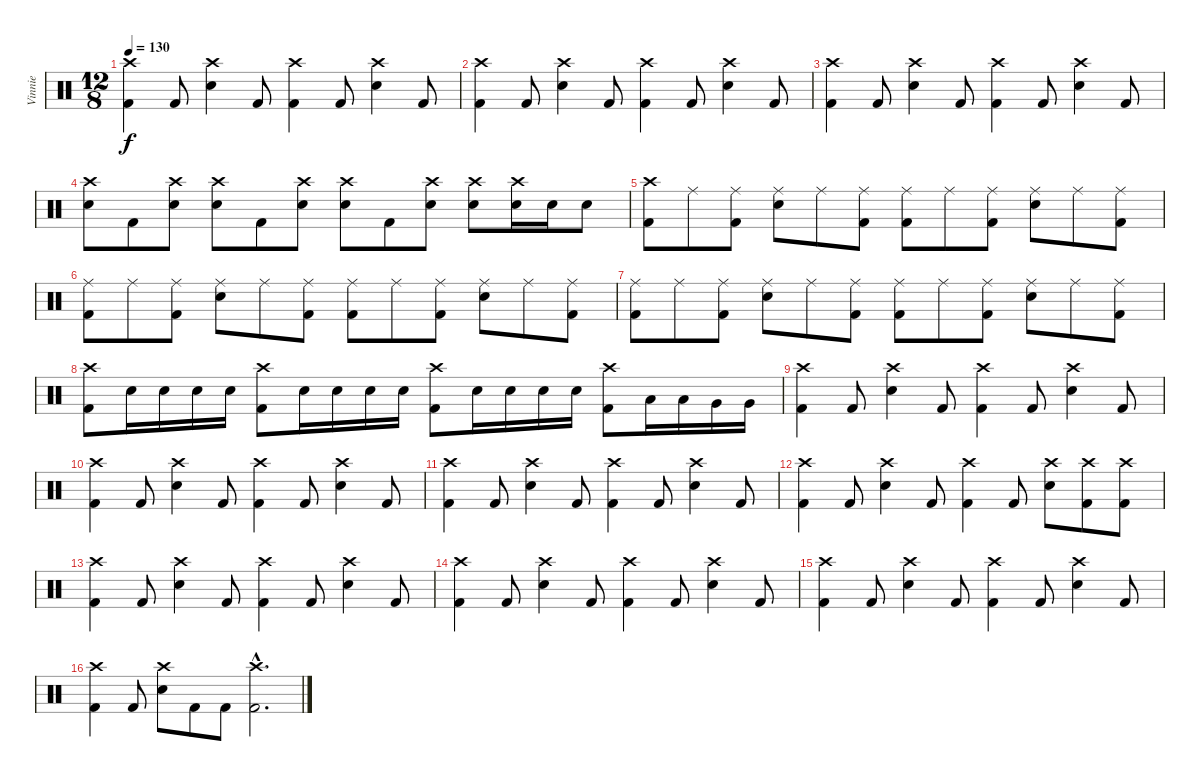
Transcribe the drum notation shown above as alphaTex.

\track ("Vinnie" "Vinnie") {instrument percussion}
\staff {score}
\articulation defaults
\ts (12 8)
\tempo 130
\clef neutral
\ks c
("Crash high (hit)" "Kick (hit) 2").4{dy f} "Kick (hit) 2".8 ("Crash high (hit)" "Electric Snare (hit)").4 "Kick (hit) 2".8 ("Crash high (hit)" "Kick (hit) 2").4 "Kick (hit) 2".8 ("Crash high (hit)" "Electric Snare (hit)").4 "Kick (hit) 2".8 |
("Crash high (hit)" "Kick (hit) 2").4 "Kick (hit) 2".8 ("Crash high (hit)" "Electric Snare (hit)").4 "Kick (hit) 2".8 ("Crash high (hit)" "Kick (hit) 2").4 "Kick (hit) 2".8 ("Crash high (hit)" "Electric Snare (hit)").4 "Kick (hit) 2".8 |
("Crash high (hit)" "Kick (hit) 2").4 "Kick (hit) 2".8 ("Crash high (hit)" "Electric Snare (hit)").4 "Kick (hit) 2".8 ("Crash high (hit)" "Kick (hit) 2").4 "Kick (hit) 2".8 ("Crash high (hit)" "Electric Snare (hit)").4 "Kick (hit) 2".8 |
("Crash high (hit)" "Electric Snare (hit)").8 "Kick (hit) 2".8 ("Crash high (hit)" "Electric Snare (hit)").8 ("Crash high (hit)" "Electric Snare (hit)").8 "Kick (hit) 2".8 ("Crash high (hit)" "Electric Snare (hit)").8 ("Crash high (hit)" "Electric Snare (hit)").8 "Kick (hit) 2".8 ("Crash high (hit)" "Electric Snare (hit)").8 ("Crash high (hit)" "Electric Snare (hit)").8 ("Crash high (hit)" "Electric Snare (hit)").16 "Electric Snare (hit)".16 "Electric Snare (hit)".8 |
("Crash high (hit)" "Kick (hit) 2").8 "Ride (middle)".8 ("Ride (middle)" "Kick (hit) 2").8 ("Ride (middle)" "Electric Snare (hit)").8 "Ride (middle)".8 ("Ride (middle)" "Kick (hit) 2").8 ("Ride (middle)" "Kick (hit) 2").8 "Ride (middle)".8 ("Ride (middle)" "Kick (hit) 2").8 ("Ride (middle)" "Electric Snare (hit)").8 "Ride (middle)".8 ("Ride (middle)" "Kick (hit) 2").8 |
("Ride (middle)" "Kick (hit) 2").8 "Ride (middle)".8 ("Ride (middle)" "Kick (hit) 2").8 ("Ride (middle)" "Electric Snare (hit)").8 "Ride (middle)".8 ("Ride (middle)" "Kick (hit) 2").8 ("Ride (middle)" "Kick (hit) 2").8 "Ride (middle)".8 ("Ride (middle)" "Kick (hit) 2").8 ("Ride (middle)" "Electric Snare (hit)").8 "Ride (middle)".8 ("Ride (middle)" "Kick (hit) 2").8 |
("Ride (middle)" "Kick (hit) 2").8 "Ride (middle)".8 ("Ride (middle)" "Kick (hit) 2").8 ("Ride (middle)" "Electric Snare (hit)").8 "Ride (middle)".8 ("Ride (middle)" "Kick (hit) 2").8 ("Ride (middle)" "Kick (hit) 2").8 "Ride (middle)".8 ("Ride (middle)" "Kick (hit) 2").8 ("Ride (middle)" "Electric Snare (hit)").8 "Ride (middle)".8 ("Ride (middle)" "Kick (hit) 2").8 |
("Crash high (hit)" "Kick (hit) 2").8 "Electric Snare (hit)".16 "Electric Snare (hit)".16 "Electric Snare (hit)".16 "Electric Snare (hit)".16 ("Crash high (hit)" "Kick (hit) 2").8 "Electric Snare (hit)".16 "Electric Snare (hit)".16 "Electric Snare (hit)".16 "Electric Snare (hit)".16 ("Crash high (hit)" "Kick (hit) 2").8 "Electric Snare (hit)".16 "Electric Snare (hit)".16 "Electric Snare (hit)".16 "Electric Snare (hit)".16 ("Crash high (hit)" "Kick (hit) 2").8 "Low Tom (hit)".16 "Low Tom (hit)".16 "Very Low Tom (hit)".16 "Very Low Tom (hit)".16 |
("Crash high (hit)" "Kick (hit) 2").4 "Kick (hit) 2".8 ("Crash high (hit)" "Electric Snare (hit)").4 "Kick (hit) 2".8 ("Crash high (hit)" "Kick (hit) 2").4 "Kick (hit) 2".8 ("Crash high (hit)" "Electric Snare (hit)").4 "Kick (hit) 2".8 |
("Crash high (hit)" "Kick (hit) 2").4 "Kick (hit) 2".8 ("Crash high (hit)" "Electric Snare (hit)").4 "Kick (hit) 2".8 ("Crash high (hit)" "Kick (hit) 2").4 "Kick (hit) 2".8 ("Crash high (hit)" "Electric Snare (hit)").4 "Kick (hit) 2".8 |
("Crash high (hit)" "Kick (hit) 2").4 "Kick (hit) 2".8 ("Crash high (hit)" "Electric Snare (hit)").4 "Kick (hit) 2".8 ("Crash high (hit)" "Kick (hit) 2").4 "Kick (hit) 2".8 ("Crash high (hit)" "Electric Snare (hit)").4 "Kick (hit) 2".8 |
("Crash high (hit)" "Kick (hit) 2").4 "Kick (hit) 2".8 ("Crash high (hit)" "Electric Snare (hit)").4 "Kick (hit) 2".8 ("Crash high (hit)" "Kick (hit) 2").4 "Kick (hit) 2".8 ("Crash high (hit)" "Electric Snare (hit)").8 ("Crash high (hit)" "Kick (hit) 2").8 ("Crash high (hit)" "Kick (hit) 2").8 |
("Crash high (hit)" "Kick (hit) 2").4 "Kick (hit) 2".8 ("Crash high (hit)" "Electric Snare (hit)").4 "Kick (hit) 2".8 ("Crash high (hit)" "Kick (hit) 2").4 "Kick (hit) 2".8 ("Crash high (hit)" "Electric Snare (hit)").4 "Kick (hit) 2".8 |
("Crash high (hit)" "Kick (hit) 2").4 "Kick (hit) 2".8 ("Crash high (hit)" "Electric Snare (hit)").4 "Kick (hit) 2".8 ("Crash high (hit)" "Kick (hit) 2").4 "Kick (hit) 2".8 ("Crash high (hit)" "Electric Snare (hit)").4 "Kick (hit) 2".8 |
("Crash high (hit)" "Kick (hit) 2").4 "Kick (hit) 2".8 ("Crash high (hit)" "Electric Snare (hit)").4 "Kick (hit) 2".8 ("Crash high (hit)" "Kick (hit) 2").4 "Kick (hit) 2".8 ("Crash high (hit)" "Electric Snare (hit)").4 "Kick (hit) 2".8 |
("Crash high (hit)" "Kick (hit) 2").4 "Kick (hit) 2".8 ("Crash high (hit)" "Electric Snare (hit)").8 "Kick (hit) 2".8 "Kick (hit) 2".8 ("Crash high (hit)"{hac} "Kick (hit) 2"{hac}).2{d}
